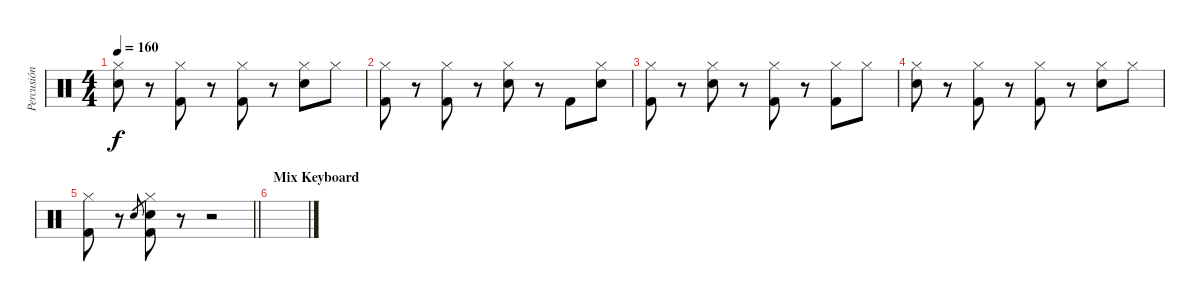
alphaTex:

\track ("Percusión" "Percusión") {instrument percussion}
\staff {score}
\articulation defaults
\ts (4 4)
\tempo 160
\clef neutral
\ks c
("Hi-Hat (closed)" "Snare (hit) 2").8{dy f} r.8 ("Hi-Hat (closed)" "Kick (hit) 2").8 r.8 ("Hi-Hat (closed)" "Kick (hit) 2").8 r.8 ("Hi-Hat (closed)" "Snare (hit) 2").8 "Hi-Hat (closed)".8 |
("Hi-Hat (closed)" "Kick (hit) 2").8 r.8 ("Hi-Hat (closed)" "Kick (hit) 2").8 r.8 ("Hi-Hat (closed)" "Snare (hit) 2").8 r.8 "Kick (hit) 2".8 ("Hi-Hat (closed)" "Snare (hit) 2").8 |
("Hi-Hat (closed)" "Kick (hit) 2").8 r.8 ("Hi-Hat (closed)" "Snare (hit) 2").8 r.8 ("Hi-Hat (closed)" "Kick (hit) 2").8 r.8 ("Hi-Hat (closed)" "Kick (hit) 2").8 "Hi-Hat (closed)".8 |
("Hi-Hat (closed)" "Snare (hit) 2").8 r.8 ("Hi-Hat (closed)" "Kick (hit) 2").8 r.8 ("Hi-Hat (closed)" "Kick (hit) 2").8 r.8 ("Hi-Hat (closed)" "Snare (hit) 2").8 "Hi-Hat (closed)".8 |
\barLineRight lightlight
("Hi-Hat (closed)" "Kick (hit) 2").8 r.8 "Snare (hit) 2".8{gr} ("Hi-Hat (closed)" "Snare (hit) 2" "Kick (hit) 2").8 r.8 r.2 |
\section ("" "Mix Keyboard")
